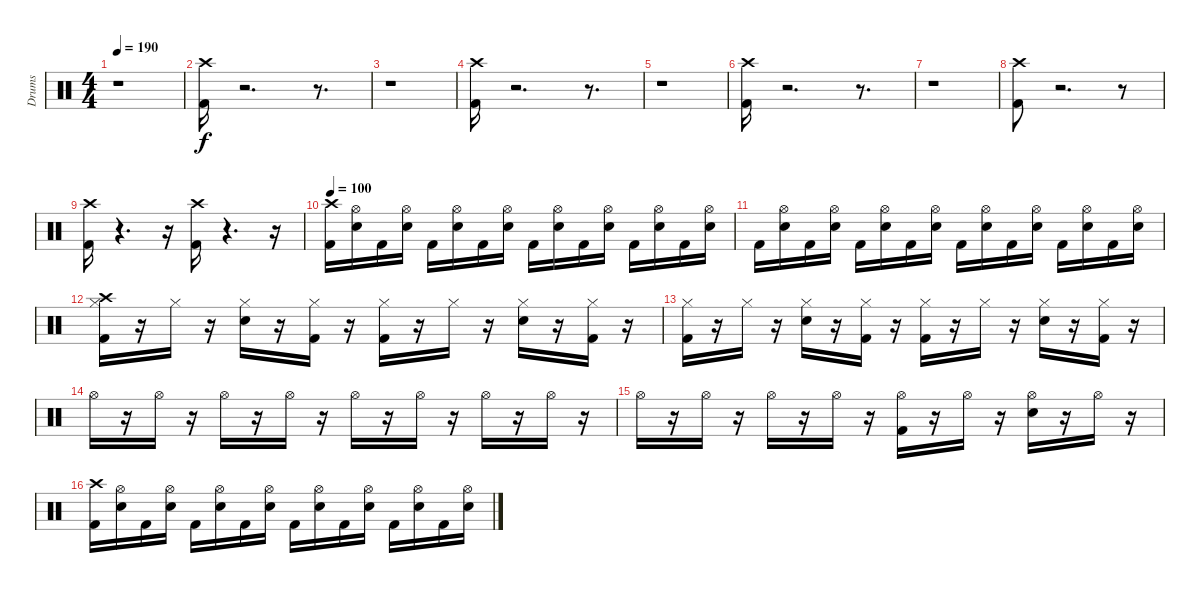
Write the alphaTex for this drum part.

\track ("Drums               " "Drums     ") {instrument percussion}
\staff {score}
\articulation defaults
\ts (4 4)
\tempo 190
\clef neutral
\ks c
r.1{dy f} |
("Kick (hit) 2" "Crash high (hit)").16 r.2{d} r.8{d} |
r.1 |
("Kick (hit) 2" "Crash high (hit)").16 r.2{d} r.8{d} |
r.1 |
("Kick (hit) 2" "Crash high (hit)").16 r.2{d} r.8{d} |
r.1 |
("Kick (hit) 2" "Crash high (hit)").8 r.2{d} r.8 |
("Kick (hit) 2" "Crash high (hit)").16 r.4{d} r.16 ("Kick (hit) 2" "Crash high (hit)").16 r.4{d} r.16 |
\tempo 100
("Kick (hit) 2" "Crash high (hit)").16 ("Snare (hit) 2" "Hi-Hat (open)").16 "Kick (hit) 2".16 ("Snare (hit) 2" "Hi-Hat (open)").16 "Kick (hit) 2".16 ("Snare (hit) 2" "Hi-Hat (open)").16 "Kick (hit) 2".16 ("Snare (hit) 2" "Hi-Hat (open)").16 "Kick (hit) 2".16 ("Snare (hit) 2" "Hi-Hat (open)").16 "Kick (hit) 2".16 ("Snare (hit) 2" "Hi-Hat (open)").16 "Kick (hit) 2".16 ("Snare (hit) 2" "Hi-Hat (open)").16 "Kick (hit) 2".16 ("Snare (hit) 2" "Hi-Hat (open)").16 |
"Kick (hit) 2".16 ("Snare (hit) 2" "Hi-Hat (open)").16 "Kick (hit) 2".16 ("Snare (hit) 2" "Hi-Hat (open)").16 "Kick (hit) 2".16 ("Snare (hit) 2" "Hi-Hat (open)").16 "Kick (hit) 2".16 ("Snare (hit) 2" "Hi-Hat (open)").16 "Kick (hit) 2".16 ("Snare (hit) 2" "Hi-Hat (open)").16 "Kick (hit) 2".16 ("Snare (hit) 2" "Hi-Hat (open)").16 "Kick (hit) 2".16 ("Snare (hit) 2" "Hi-Hat (open)").16 "Kick (hit) 2".16 ("Snare (hit) 2" "Hi-Hat (open)").16 |
("Kick (hit) 2" "Hi-Hat (closed)" "Crash high (hit)").16 r.16 "Hi-Hat (closed)".16 r.16 ("Snare (hit) 2" "Hi-Hat (closed)").16 r.16 ("Kick (hit) 2" "Hi-Hat (closed)").16 r.16 ("Kick (hit) 2" "Hi-Hat (closed)").16 r.16 "Hi-Hat (closed)".16 r.16 ("Snare (hit) 2" "Hi-Hat (closed)").16 r.16 ("Kick (hit) 2" "Hi-Hat (closed)").16 r.16 |
("Kick (hit) 2" "Hi-Hat (closed)").16 r.16 "Hi-Hat (closed)".16 r.16 ("Snare (hit) 2" "Hi-Hat (closed)").16 r.16 ("Kick (hit) 2" "Hi-Hat (closed)").16 r.16 ("Kick (hit) 2" "Hi-Hat (closed)").16 r.16 "Hi-Hat (closed)".16 r.16 ("Snare (hit) 2" "Hi-Hat (closed)").16 r.16 ("Kick (hit) 2" "Hi-Hat (closed)").16 r.16 |
"Hi-Hat (open)".16 r.16 "Hi-Hat (open)".16 r.16 "Hi-Hat (open)".16 r.16 "Hi-Hat (open)".16 r.16 "Hi-Hat (open)".16 r.16 "Hi-Hat (open)".16 r.16 "Hi-Hat (open)".16 r.16 "Hi-Hat (open)".16 r.16 |
"Hi-Hat (open)".16 r.16 "Hi-Hat (open)".16 r.16 "Hi-Hat (open)".16 r.16 "Hi-Hat (open)".16 r.16 ("Kick (hit) 2" "Hi-Hat (open)").16 r.16 "Hi-Hat (open)".16 r.16 ("Snare (hit) 2" "Hi-Hat (open)").16 r.16 "Hi-Hat (open)".16 r.16 |
("Kick (hit) 2" "Crash high (hit)").16 ("Snare (hit) 2" "Hi-Hat (open)").16 "Kick (hit) 2".16 ("Snare (hit) 2" "Hi-Hat (open)").16 "Kick (hit) 2".16 ("Snare (hit) 2" "Hi-Hat (open)").16 "Kick (hit) 2".16 ("Snare (hit) 2" "Hi-Hat (open)").16 "Kick (hit) 2".16 ("Snare (hit) 2" "Hi-Hat (open)").16 "Kick (hit) 2".16 ("Snare (hit) 2" "Hi-Hat (open)").16 "Kick (hit) 2".16 ("Snare (hit) 2" "Hi-Hat (open)").16 "Kick (hit) 2".16 ("Snare (hit) 2" "Hi-Hat (open)").16
